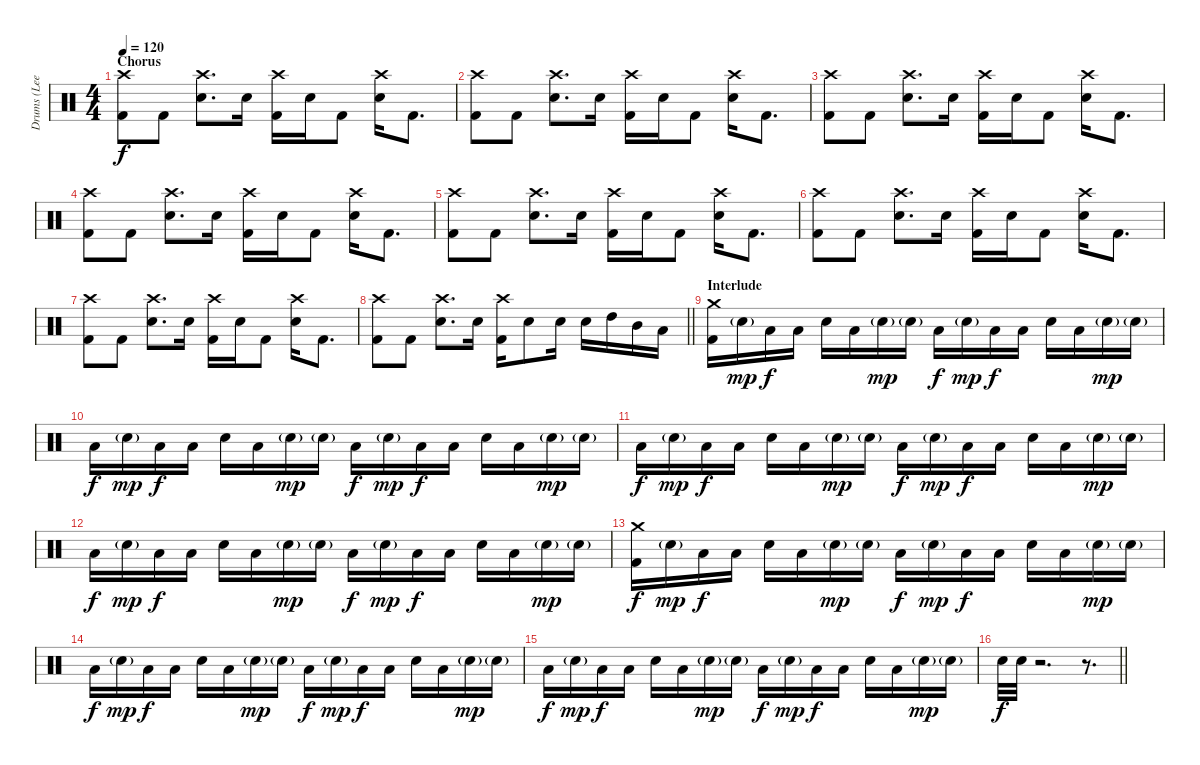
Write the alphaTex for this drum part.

\track ("Drums (Lee)" "Drums (Lee") {instrument percussion}
\staff {score}
\articulation defaults
\ts (4 4)
\section ("" "Chorus")
\tempo 120
\clef neutral
\ks c
("Crash high (hit)" "Kick (hit) 2").8{dy f} "Kick (hit) 2".8 ("Crash high (hit)" "Electric Snare (hit)").8{d} "Electric Snare (hit)".16 ("Crash high (hit)" "Kick (hit) 2").16 "Electric Snare (hit)".16 "Kick (hit) 2".8 ("Crash high (hit)" "Electric Snare (hit)").16 "Kick (hit) 2".8{d} |
("Crash high (hit)" "Kick (hit) 2").8 "Kick (hit) 2".8 ("Crash high (hit)" "Electric Snare (hit)").8{d} "Electric Snare (hit)".16 ("Crash high (hit)" "Kick (hit) 2").16 "Electric Snare (hit)".16 "Kick (hit) 2".8 ("Crash high (hit)" "Electric Snare (hit)").16 "Kick (hit) 2".8{d} |
("Crash high (hit)" "Kick (hit) 2").8 "Kick (hit) 2".8 ("Crash high (hit)" "Electric Snare (hit)").8{d} "Electric Snare (hit)".16 ("Crash high (hit)" "Kick (hit) 2").16 "Electric Snare (hit)".16 "Kick (hit) 2".8 ("Crash high (hit)" "Electric Snare (hit)").16 "Kick (hit) 2".8{d} |
("Crash high (hit)" "Kick (hit) 2").8 "Kick (hit) 2".8 ("Crash high (hit)" "Electric Snare (hit)").8{d} "Electric Snare (hit)".16 ("Crash high (hit)" "Kick (hit) 2").16 "Electric Snare (hit)".16 "Kick (hit) 2".8 ("Crash high (hit)" "Electric Snare (hit)").16 "Kick (hit) 2".8{d} |
("Crash high (hit)" "Kick (hit) 2").8 "Kick (hit) 2".8 ("Crash high (hit)" "Electric Snare (hit)").8{d} "Electric Snare (hit)".16 ("Crash high (hit)" "Kick (hit) 2").16 "Electric Snare (hit)".16 "Kick (hit) 2".8 ("Crash high (hit)" "Electric Snare (hit)").16 "Kick (hit) 2".8{d} |
("Crash high (hit)" "Kick (hit) 2").8 "Kick (hit) 2".8 ("Crash high (hit)" "Electric Snare (hit)").8{d} "Electric Snare (hit)".16 ("Crash high (hit)" "Kick (hit) 2").16 "Electric Snare (hit)".16 "Kick (hit) 2".8 ("Crash high (hit)" "Electric Snare (hit)").16 "Kick (hit) 2".8{d} |
("Crash high (hit)" "Kick (hit) 2").8 "Kick (hit) 2".8 ("Crash high (hit)" "Electric Snare (hit)").8{d} "Electric Snare (hit)".16 ("Crash high (hit)" "Kick (hit) 2").16 "Electric Snare (hit)".16 "Kick (hit) 2".8 ("Crash high (hit)" "Electric Snare (hit)").16 "Kick (hit) 2".8{d} |
\barLineRight lightlight
("Crash high (hit)" "Kick (hit) 2").8 "Kick (hit) 2".8 ("Crash high (hit)" "Electric Snare (hit)").8{d} "Electric Snare (hit)".16 ("Crash high (hit)" "Kick (hit) 2").16 "Electric Snare (hit)".8 "Electric Snare (hit)".16 "Electric Snare (hit)".16 "High Tom (hit)".16 "Mid Tom (hit)".16 "Low Tom (hit)".16 |
\section ("" "Interlude")
("Crash medium (hit)" "Kick (hit) 2").16 "Snare (hit) 2"{g}.16{dy mp} "Low Floor Tom (hit)".16{dy f} "Low Floor Tom (hit)".16 "Electric Snare (hit)".16 "Low Floor Tom (hit)".16 "Snare (hit) 2"{g}.16{dy mp} "Snare (hit) 2"{g}.16 "Low Floor Tom (hit)".16{dy f} "Snare (hit) 2"{g}.16{dy mp} "Low Floor Tom (hit)".16{dy f} "Low Floor Tom (hit)".16 "Electric Snare (hit)".16 "Low Floor Tom (hit)".16 "Snare (hit) 2"{g}.16{dy mp} "Snare (hit) 2"{g}.16 |
"Low Floor Tom (hit)".16{dy f} "Snare (hit) 2"{g}.16{dy mp} "Low Floor Tom (hit)".16{dy f} "Low Floor Tom (hit)".16 "Electric Snare (hit)".16 "Low Floor Tom (hit)".16 "Snare (hit) 2"{g}.16{dy mp} "Snare (hit) 2"{g}.16 "Low Floor Tom (hit)".16{dy f} "Snare (hit) 2"{g}.16{dy mp} "Low Floor Tom (hit)".16{dy f} "Low Floor Tom (hit)".16 "Electric Snare (hit)".16 "Low Floor Tom (hit)".16 "Snare (hit) 2"{g}.16{dy mp} "Snare (hit) 2"{g}.16 |
"Low Floor Tom (hit)".16{dy f} "Snare (hit) 2"{g}.16{dy mp} "Low Floor Tom (hit)".16{dy f} "Low Floor Tom (hit)".16 "Electric Snare (hit)".16 "Low Floor Tom (hit)".16 "Snare (hit) 2"{g}.16{dy mp} "Snare (hit) 2"{g}.16 "Low Floor Tom (hit)".16{dy f} "Snare (hit) 2"{g}.16{dy mp} "Low Floor Tom (hit)".16{dy f} "Low Floor Tom (hit)".16 "Electric Snare (hit)".16 "Low Floor Tom (hit)".16 "Snare (hit) 2"{g}.16{dy mp} "Snare (hit) 2"{g}.16 |
"Low Floor Tom (hit)".16{dy f} "Snare (hit) 2"{g}.16{dy mp} "Low Floor Tom (hit)".16{dy f} "Low Floor Tom (hit)".16 "Electric Snare (hit)".16 "Low Floor Tom (hit)".16 "Snare (hit) 2"{g}.16{dy mp} "Snare (hit) 2"{g}.16 "Low Floor Tom (hit)".16{dy f} "Snare (hit) 2"{g}.16{dy mp} "Low Floor Tom (hit)".16{dy f} "Low Floor Tom (hit)".16 "Electric Snare (hit)".16 "Low Floor Tom (hit)".16 "Snare (hit) 2"{g}.16{dy mp} "Snare (hit) 2"{g}.16 |
("Crash medium (hit)" "Kick (hit) 2").16{dy f} "Snare (hit) 2"{g}.16{dy mp} "Low Floor Tom (hit)".16{dy f} "Low Floor Tom (hit)".16 "Electric Snare (hit)".16 "Low Floor Tom (hit)".16 "Snare (hit) 2"{g}.16{dy mp} "Snare (hit) 2"{g}.16 "Low Floor Tom (hit)".16{dy f} "Snare (hit) 2"{g}.16{dy mp} "Low Floor Tom (hit)".16{dy f} "Low Floor Tom (hit)".16 "Electric Snare (hit)".16 "Low Floor Tom (hit)".16 "Snare (hit) 2"{g}.16{dy mp} "Snare (hit) 2"{g}.16 |
"Low Floor Tom (hit)".16{dy f} "Snare (hit) 2"{g}.16{dy mp} "Low Floor Tom (hit)".16{dy f} "Low Floor Tom (hit)".16 "Electric Snare (hit)".16 "Low Floor Tom (hit)".16 "Snare (hit) 2"{g}.16{dy mp} "Snare (hit) 2"{g}.16 "Low Floor Tom (hit)".16{dy f} "Snare (hit) 2"{g}.16{dy mp} "Low Floor Tom (hit)".16{dy f} "Low Floor Tom (hit)".16 "Electric Snare (hit)".16 "Low Floor Tom (hit)".16 "Snare (hit) 2"{g}.16{dy mp} "Snare (hit) 2"{g}.16 |
"Low Floor Tom (hit)".16{dy f} "Snare (hit) 2"{g}.16{dy mp} "Low Floor Tom (hit)".16{dy f} "Low Floor Tom (hit)".16 "Electric Snare (hit)".16 "Low Floor Tom (hit)".16 "Snare (hit) 2"{g}.16{dy mp} "Snare (hit) 2"{g}.16 "Low Floor Tom (hit)".16{dy f} "Snare (hit) 2"{g}.16{dy mp} "Low Floor Tom (hit)".16{dy f} "Low Floor Tom (hit)".16 "Electric Snare (hit)".16 "Low Floor Tom (hit)".16 "Snare (hit) 2"{g}.16{dy mp} "Snare (hit) 2"{g}.16 |
\barLineRight lightlight "Electric Snare (hit)".32{dy f} "Electric Snare (hit)".32
r.2{d} r.8{d}
